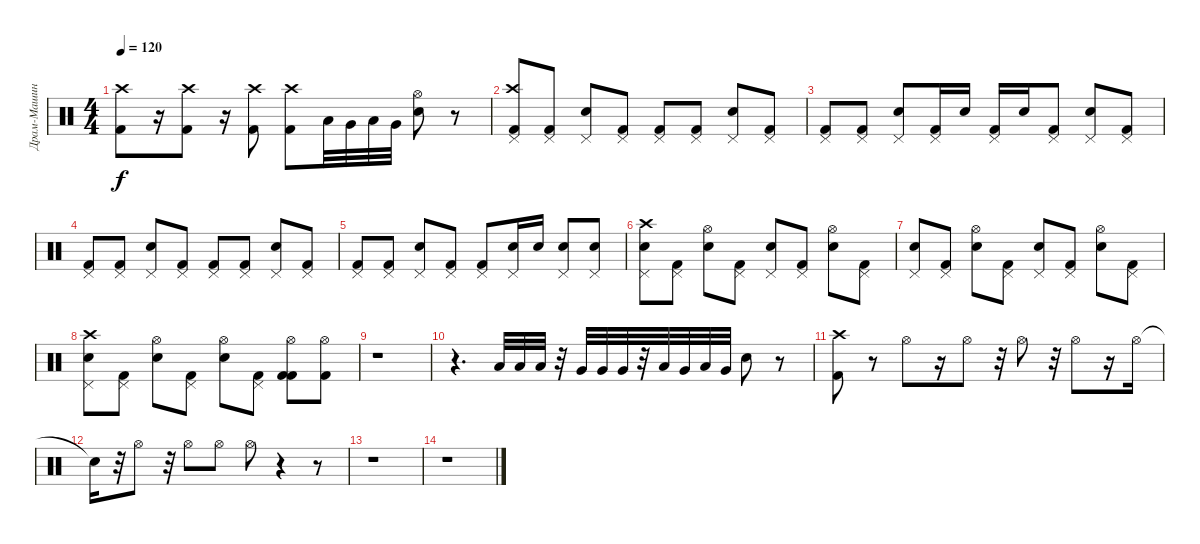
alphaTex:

\track ("Драм-Машина" "Драм-Машин") {instrument percussion}
\staff {score}
\articulation defaults
\ts (4 4)
\tempo 120
\clef neutral
\ks c
("Kick (hit) 2" "Crash high (hit)").8{dy f} r.16 ("Kick (hit) 2" "Crash high (hit)").8 r.16 ("Kick (hit) 2" "Crash high (hit)").8 ("Kick (hit) 2" "Crash high (hit)").8 "Low Floor Tom (hit)".32 "Very Low Tom (hit)".32 "Low Floor Tom (hit)".32 "Very Low Tom (hit)".32 ("Hi-Hat (open)" "Electric Snare (hit)").8 r.8 |
("Crash high (hit)" "Pedal Hi-Hat (hit)" "Kick (hit) 2").8 ("Kick (hit) 2" "Pedal Hi-Hat (hit)").8 ("Pedal Hi-Hat (hit)" "Electric Snare (hit)").8 ("Kick (hit) 2" "Pedal Hi-Hat (hit)").8 ("Pedal Hi-Hat (hit)" "Kick (hit) 2").8 ("Kick (hit) 2" "Pedal Hi-Hat (hit)").8 ("Pedal Hi-Hat (hit)" "Electric Snare (hit)").8 ("Kick (hit) 2" "Pedal Hi-Hat (hit)").8 |
("Pedal Hi-Hat (hit)" "Kick (hit) 2").8 ("Kick (hit) 2" "Pedal Hi-Hat (hit)").8 ("Pedal Hi-Hat (hit)" "Electric Snare (hit)").8 ("Kick (hit) 2" "Pedal Hi-Hat (hit)").16 "Electric Snare (hit)".16 ("Pedal Hi-Hat (hit)" "Kick (hit) 2").16 "Electric Snare (hit)".16 ("Kick (hit) 2" "Pedal Hi-Hat (hit)").8 ("Pedal Hi-Hat (hit)" "Electric Snare (hit)").8 ("Kick (hit) 2" "Pedal Hi-Hat (hit)").8 |
("Pedal Hi-Hat (hit)" "Kick (hit) 2").8 ("Kick (hit) 2" "Pedal Hi-Hat (hit)").8 ("Pedal Hi-Hat (hit)" "Electric Snare (hit)").8 ("Kick (hit) 2" "Pedal Hi-Hat (hit)").8 ("Pedal Hi-Hat (hit)" "Kick (hit) 2").8 ("Kick (hit) 2" "Pedal Hi-Hat (hit)").8 ("Pedal Hi-Hat (hit)" "Electric Snare (hit)").8 ("Kick (hit) 2" "Pedal Hi-Hat (hit)").8 |
("Pedal Hi-Hat (hit)" "Kick (hit) 2").8 ("Kick (hit) 2" "Pedal Hi-Hat (hit)").8 ("Pedal Hi-Hat (hit)" "Electric Snare (hit)").8 ("Kick (hit) 2" "Pedal Hi-Hat (hit)").8 ("Pedal Hi-Hat (hit)" "Kick (hit) 2").8 ("Pedal Hi-Hat (hit)" "Electric Snare (hit)").16 "Electric Snare (hit)".16 ("Pedal Hi-Hat (hit)" "Electric Snare (hit)").8 ("Electric Snare (hit)" "Pedal Hi-Hat (hit)").8 |
("Crash high (hit)" "Pedal Hi-Hat (hit)" "Electric Snare (hit)").8 ("Kick (hit) 2" "Pedal Hi-Hat (hit)").8 ("Hi-Hat (open)" "Electric Snare (hit)").8 ("Kick (hit) 2" "Pedal Hi-Hat (hit)").8 ("Pedal Hi-Hat (hit)" "Electric Snare (hit)").8 ("Kick (hit) 2" "Pedal Hi-Hat (hit)").8 ("Hi-Hat (open)" "Electric Snare (hit)").8 ("Kick (hit) 2" "Pedal Hi-Hat (hit)").8 |
("Pedal Hi-Hat (hit)" "Electric Snare (hit)").8 ("Kick (hit) 2" "Pedal Hi-Hat (hit)").8 ("Hi-Hat (open)" "Electric Snare (hit)").8 ("Kick (hit) 2" "Pedal Hi-Hat (hit)").8 ("Pedal Hi-Hat (hit)" "Electric Snare (hit)").8 ("Kick (hit) 2" "Pedal Hi-Hat (hit)").8 ("Hi-Hat (open)" "Electric Snare (hit)").8 ("Kick (hit) 2" "Pedal Hi-Hat (hit)").8 |
("Crash high (hit)" "Pedal Hi-Hat (hit)" "Electric Snare (hit)").8 ("Kick (hit) 2" "Pedal Hi-Hat (hit)").8 ("Hi-Hat (open)" "Electric Snare (hit)").8 ("Kick (hit) 2" "Pedal Hi-Hat (hit)").8 ("Hi-Hat (open)" "Electric Snare (hit)").8 ("Kick (hit) 2" "Pedal Hi-Hat (hit)").8 ("Hi-Hat (open)" "Kick (hit) 2" "Kick (hit) 2").8 ("Kick (hit) 2" "Hi-Hat (open)").8 |
r.1 |
r.4{d} "Low Floor Tom (hit)".32 "Low Floor Tom (hit)".32 "Low Floor Tom (hit)".32 r.32 "Very Low Tom (hit)".32 "Very Low Tom (hit)".32 "Very Low Tom (hit)".32 r.32 "Low Floor Tom (hit)".32 "Very Low Tom (hit)".32 "Low Floor Tom (hit)".32 "Very Low Tom (hit)".32 "Electric Snare (hit)".8 r.8 |
("Crash high (hit)" "Kick (hit) 2").8 r.8 "Hi-Hat (open)".8 r.16 "Hi-Hat (open)".8 r.32 "Hi-Hat (open)".8 r.32 "Hi-Hat (open)".8 r.16 "Hi-Hat (open)".16 |
"Snare (hit)"{t}.16 r.32 "Hi-Hat (open)".8 r.32 "Hi-Hat (open)".8 "Hi-Hat (open)".8 "Hi-Hat (open)".8 r.4 r.8 |
r.1 |
r.1
